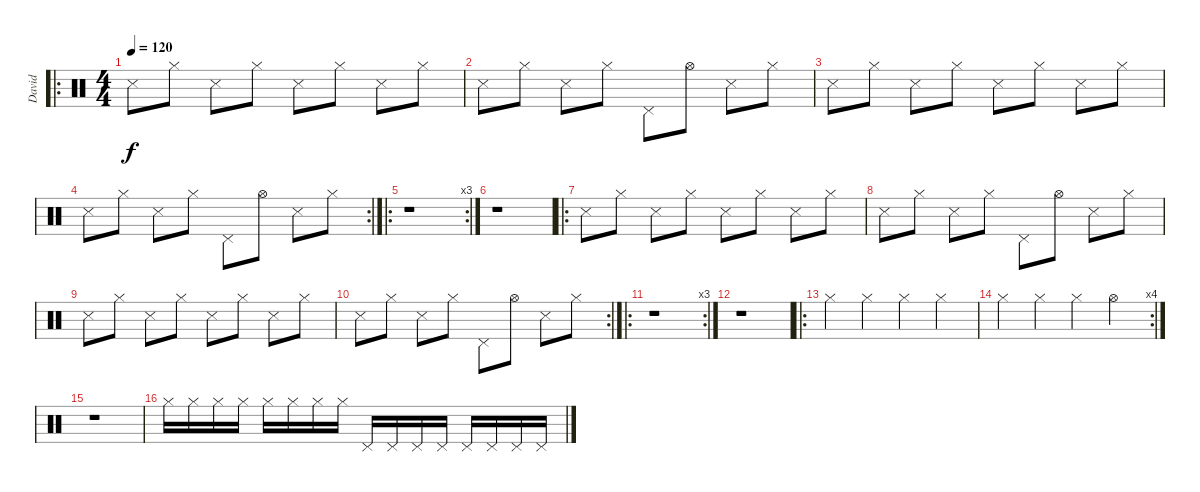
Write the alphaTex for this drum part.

\track ("David" "David") {instrument percussion}
\staff {score}
\articulation defaults
\ro
\ts (4 4)
\tempo 120
\clef neutral
\ks c "Snare (side stick) 3".8{dy f} "Hi-Hat (closed)".8 "Snare (side stick) 3".8 "Hi-Hat (closed)".8 "Snare (side stick) 3".8 "Hi-Hat (closed)".8 "Snare (side stick) 3".8 "Hi-Hat (closed)".8
|
"Snare (side stick) 3".8 "Hi-Hat (closed)".8 "Snare (side stick) 3".8 "Hi-Hat (closed)".8 "Pedal Hi-Hat (hit)".8 "Hi-Hat (open)".8 "Snare (side stick) 3".8 "Hi-Hat (closed)".8 |
"Snare (side stick) 3".8 "Hi-Hat (closed)".8 "Snare (side stick) 3".8 "Hi-Hat (closed)".8 "Snare (side stick) 3".8 "Hi-Hat (closed)".8 "Snare (side stick) 3".8 "Hi-Hat (closed)".8 |
\rc 2 "Snare (side stick) 3".8 "Hi-Hat (closed)".8 "Snare (side stick) 3".8 "Hi-Hat (closed)".8 "Pedal Hi-Hat (hit)".8 "Hi-Hat (open)".8 "Snare (side stick) 3".8 "Hi-Hat (closed)".8
|
\ro
\rc 3
r.1 |
r.1 |
\ro "Snare (side stick) 3".8 "Hi-Hat (closed)".8 "Snare (side stick) 3".8 "Hi-Hat (closed)".8 "Snare (side stick) 3".8 "Hi-Hat (closed)".8 "Snare (side stick) 3".8 "Hi-Hat (closed)".8
|
"Snare (side stick) 3".8 "Hi-Hat (closed)".8 "Snare (side stick) 3".8 "Hi-Hat (closed)".8 "Pedal Hi-Hat (hit)".8 "Hi-Hat (open)".8 "Snare (side stick) 3".8 "Hi-Hat (closed)".8 |
"Snare (side stick) 3".8 "Hi-Hat (closed)".8 "Snare (side stick) 3".8 "Hi-Hat (closed)".8 "Snare (side stick) 3".8 "Hi-Hat (closed)".8 "Snare (side stick) 3".8 "Hi-Hat (closed)".8 |
\rc 2 "Snare (side stick) 3".8 "Hi-Hat (closed)".8 "Snare (side stick) 3".8 "Hi-Hat (closed)".8 "Pedal Hi-Hat (hit)".8 "Hi-Hat (open)".8 "Snare (side stick) 3".8 "Hi-Hat (closed)".8
|
\ro
\rc 3
r.1 |
r.1 |
\ro "Hi-Hat (closed)".4 "Hi-Hat (closed)".4 "Hi-Hat (closed)".4 "Hi-Hat (closed)".4
|
\rc 4 "Hi-Hat (closed)".4 "Hi-Hat (closed)".4 "Hi-Hat (closed)".4 "Hi-Hat (open)".4
|
r.1 |
"Hi-Hat (closed)".16 "Hi-Hat (closed)".16 "Hi-Hat (closed)".16 "Hi-Hat (closed)".16 "Hi-Hat (closed)".16 "Hi-Hat (closed)".16 "Hi-Hat (closed)".16 "Hi-Hat (closed)".16 "Pedal Hi-Hat (hit)".16 "Pedal Hi-Hat (hit)".16 "Pedal Hi-Hat (hit)".16 "Pedal Hi-Hat (hit)".16 "Pedal Hi-Hat (hit)".16 "Pedal Hi-Hat (hit)".16 "Pedal Hi-Hat (hit)".16 "Pedal Hi-Hat (hit)".16
